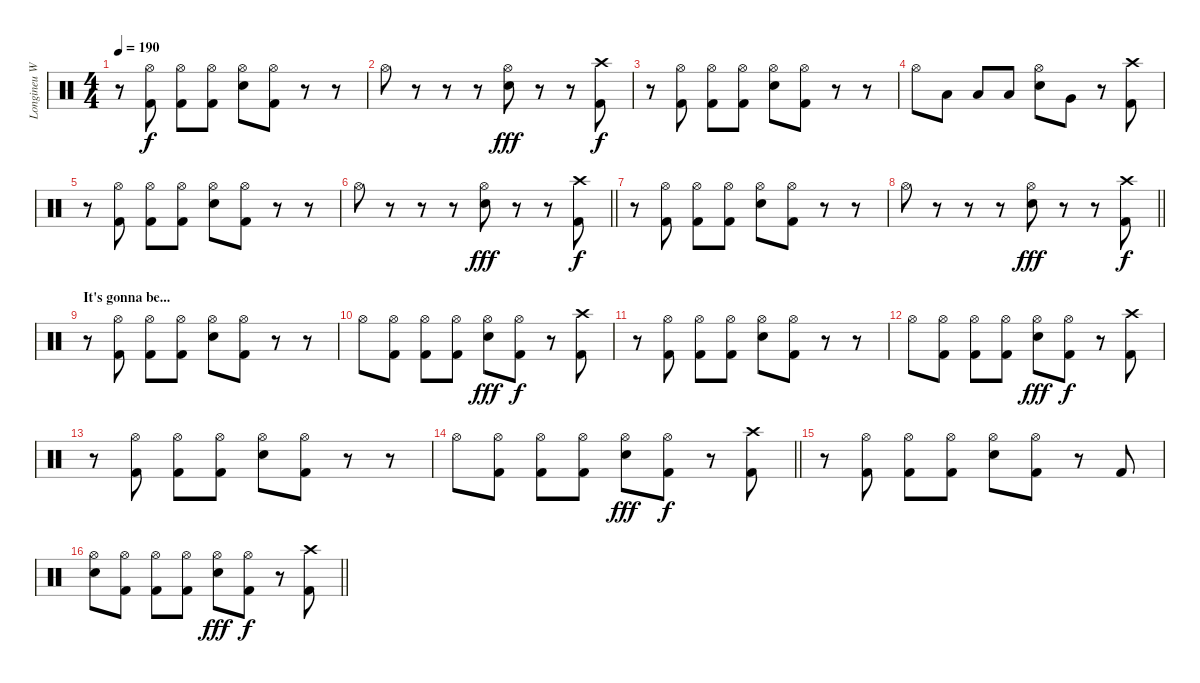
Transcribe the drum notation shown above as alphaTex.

\track ("Longineu W. Parsons III" "Longineu W") {instrument percussion}
\staff {score}
\articulation defaults
\ts (4 4)
\tempo 190
\clef neutral
\ks c
r.8{dy f} ("Hi-Hat (open)" "Kick (hit) 2").8 ("Hi-Hat (open)" "Kick (hit) 2").8 ("Hi-Hat (open)" "Kick (hit) 2").8 ("Hi-Hat (open)" "Electric Snare (hit)").8 ("Hi-Hat (open)" "Kick (hit) 2").8 r.8 r.8 |
"Hi-Hat (open)".8 r.8 r.8 r.8 ("Hi-Hat (open)" "Electric Snare (hit)").8{dy fff} r.8 r.8 ("Crash high (hit)" "Kick (hit) 2").8{dy f} |
r.8 ("Hi-Hat (open)" "Kick (hit) 2").8 ("Hi-Hat (open)" "Kick (hit) 2").8 ("Hi-Hat (open)" "Kick (hit) 2").8 ("Hi-Hat (open)" "Electric Snare (hit)").8 ("Hi-Hat (open)" "Kick (hit) 2").8 r.8 r.8 |
"Hi-Hat (open)".8 "Low Tom (hit)".8 "Low Tom (hit)".8 "Low Tom (hit)".8 ("Hi-Hat (open)" "Electric Snare (hit)").8 "Very Low Tom (hit)".8 r.8 ("Crash high (hit)" "Kick (hit) 2").8 |
r.8 ("Hi-Hat (open)" "Kick (hit) 2").8 ("Hi-Hat (open)" "Kick (hit) 2").8 ("Hi-Hat (open)" "Kick (hit) 2").8 ("Hi-Hat (open)" "Electric Snare (hit)").8 ("Hi-Hat (open)" "Kick (hit) 2").8 r.8 r.8 |
\barLineRight lightlight "Hi-Hat (open)".8
r.8 r.8 r.8 ("Hi-Hat (open)" "Electric Snare (hit)").8{dy fff} r.8 r.8 ("Crash high (hit)" "Kick (hit) 2").8{dy f} |
r.8 ("Hi-Hat (open)" "Kick (hit) 2").8 ("Hi-Hat (open)" "Kick (hit) 2").8 ("Hi-Hat (open)" "Kick (hit) 2").8 ("Hi-Hat (open)" "Electric Snare (hit)").8 ("Hi-Hat (open)" "Kick (hit) 2").8 r.8 r.8 |
\barLineRight lightlight "Hi-Hat (open)".8
r.8 r.8 r.8 ("Hi-Hat (open)" "Electric Snare (hit)").8{dy fff} r.8 r.8 ("Crash high (hit)" "Kick (hit) 2").8{dy f} |
\section ("" "It's gonna be...")
r.8 ("Hi-Hat (open)" "Kick (hit) 2").8 ("Hi-Hat (open)" "Kick (hit) 2").8 ("Hi-Hat (open)" "Kick (hit) 2").8 ("Hi-Hat (open)" "Electric Snare (hit)").8 ("Hi-Hat (open)" "Kick (hit) 2").8 r.8 r.8 |
"Hi-Hat (open)".8 ("Hi-Hat (open)" "Kick (hit) 2").8 ("Hi-Hat (open)" "Kick (hit) 2").8 ("Hi-Hat (open)" "Kick (hit) 2").8 ("Hi-Hat (open)" "Electric Snare (hit)").8{dy fff} ("Hi-Hat (open)" "Kick (hit) 2").8{dy f} r.8 ("Crash high (hit)" "Kick (hit) 2").8 |
r.8 ("Hi-Hat (open)" "Kick (hit) 2").8 ("Hi-Hat (open)" "Kick (hit) 2").8 ("Hi-Hat (open)" "Kick (hit) 2").8 ("Hi-Hat (open)" "Electric Snare (hit)").8 ("Hi-Hat (open)" "Kick (hit) 2").8 r.8 r.8 |
"Hi-Hat (open)".8 ("Hi-Hat (open)" "Kick (hit) 2").8 ("Hi-Hat (open)" "Kick (hit) 2").8 ("Hi-Hat (open)" "Kick (hit) 2").8 ("Hi-Hat (open)" "Electric Snare (hit)").8{dy fff} ("Hi-Hat (open)" "Kick (hit) 2").8{dy f} r.8 ("Crash high (hit)" "Kick (hit) 2").8 |
r.8 ("Hi-Hat (open)" "Kick (hit) 2").8 ("Hi-Hat (open)" "Kick (hit) 2").8 ("Hi-Hat (open)" "Kick (hit) 2").8 ("Hi-Hat (open)" "Electric Snare (hit)").8 ("Hi-Hat (open)" "Kick (hit) 2").8 r.8 r.8 |
\barLineRight lightlight "Hi-Hat (open)".8
("Hi-Hat (open)" "Kick (hit) 2").8 ("Hi-Hat (open)" "Kick (hit) 2").8 ("Hi-Hat (open)" "Kick (hit) 2").8 ("Hi-Hat (open)" "Electric Snare (hit)").8{dy fff} ("Hi-Hat (open)" "Kick (hit) 2").8{dy f} r.8 ("Crash high (hit)" "Kick (hit) 2").8 |
r.8 ("Hi-Hat (open)" "Kick (hit) 2").8 ("Hi-Hat (open)" "Kick (hit) 2").8 ("Hi-Hat (open)" "Kick (hit) 2").8 ("Hi-Hat (open)" "Electric Snare (hit)").8 ("Hi-Hat (open)" "Kick (hit) 2").8 r.8 "Kick (hit) 2".8 |
\barLineRight lightlight
("Hi-Hat (open)" "Electric Snare (hit)").8 ("Hi-Hat (open)" "Kick (hit) 2").8 ("Hi-Hat (open)" "Kick (hit) 2").8 ("Hi-Hat (open)" "Kick (hit) 2").8 ("Hi-Hat (open)" "Electric Snare (hit)").8{dy fff} ("Hi-Hat (open)" "Kick (hit) 2").8{dy f} r.8 ("Crash high (hit)" "Kick (hit) 2").8
